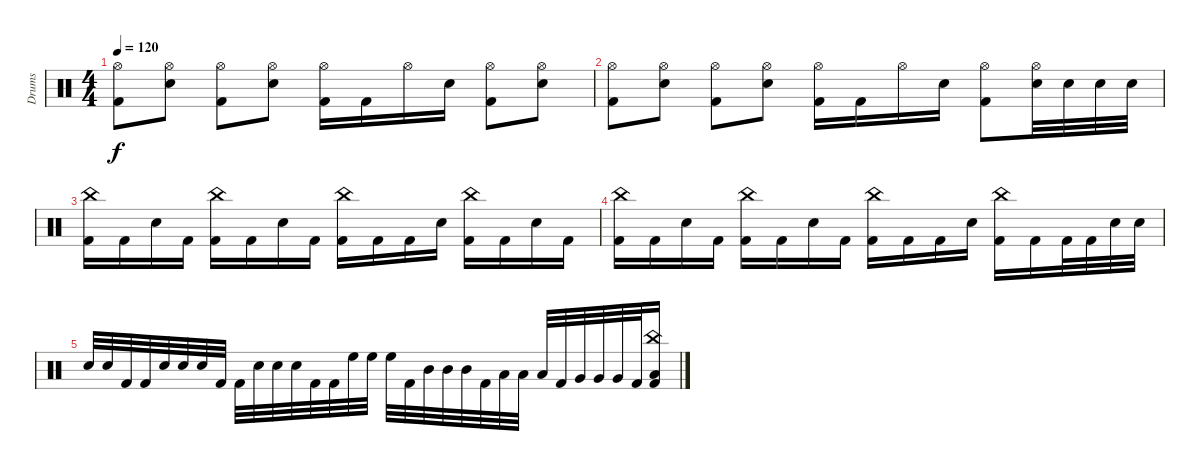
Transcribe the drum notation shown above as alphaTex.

\track ("Drums" "Drums") {instrument percussion}
\staff {score}
\articulation defaults
\ts (4 4)
\tempo 120
\clef neutral
\ks c
("Hi-Hat (open)" "Kick (hit) 2").8{dy f} ("Hi-Hat (open)" "Electric Snare (hit)").8 ("Hi-Hat (open)" "Kick (hit) 2").8 ("Hi-Hat (open)" "Electric Snare (hit)").8 ("Hi-Hat (open)" "Kick (hit) 2").16 "Kick (hit) 2".16 "Hi-Hat (open)".16 "Electric Snare (hit)".16 ("Hi-Hat (open)" "Kick (hit) 2").8 ("Hi-Hat (open)" "Electric Snare (hit)").8 |
("Hi-Hat (open)" "Kick (hit) 2").8 ("Hi-Hat (open)" "Electric Snare (hit)").8 ("Hi-Hat (open)" "Kick (hit) 2").8 ("Hi-Hat (open)" "Electric Snare (hit)").8 ("Hi-Hat (open)" "Kick (hit) 2").16 "Kick (hit) 2".16 "Hi-Hat (open)".16 "Electric Snare (hit)".16 ("Hi-Hat (open)" "Kick (hit) 2").8 ("Hi-Hat (open)" "Electric Snare (hit)").32 "Electric Snare (hit)".32 "Electric Snare (hit)".32 "Electric Snare (hit)".32 |
("China (hit)" "Kick (hit) 2").16 "Kick (hit) 2".16 "Electric Snare (hit)".16 "Kick (hit) 2".16 ("China (hit)" "Kick (hit) 2").16 "Kick (hit) 2".16 "Electric Snare (hit)".16 "Kick (hit) 2".16 ("China (hit)" "Kick (hit) 2").16 "Kick (hit) 2".16 "Kick (hit) 2".16 "Electric Snare (hit)".16 ("China (hit)" "Kick (hit) 2").16 "Kick (hit) 2".16 "Electric Snare (hit)".16 "Kick (hit) 2".16 |
("China (hit)" "Kick (hit) 2").16 "Kick (hit) 2".16 "Electric Snare (hit)".16 "Kick (hit) 2".16 ("China (hit)" "Kick (hit) 2").16 "Kick (hit) 2".16 "Electric Snare (hit)".16 "Kick (hit) 2".16 ("China (hit)" "Kick (hit) 2").16 "Kick (hit) 2".16 "Kick (hit) 2".16 "Electric Snare (hit)".16 ("China (hit)" "Kick (hit) 2").16 "Kick (hit) 2".16 "Kick (hit) 2".32 "Kick (hit) 2".32 "Electric Snare (hit)".32 "Electric Snare (hit)".32 |
"Electric Snare (hit)".32 "Electric Snare (hit)".32 "Kick (hit) 2".32 "Kick (hit) 2".32 "Electric Snare (hit)".32 "Electric Snare (hit)".32 "Electric Snare (hit)".32 "Kick (hit) 2".32 "Kick (hit) 2".32 "Electric Snare (hit)".32 "Electric Snare (hit)".32 "Electric Snare (hit)".32 "Kick (hit) 2".32 "Kick (hit) 2".32 "High Floor Tom (hit)".32 "High Floor Tom (hit)".32 "High Floor Tom (hit)".32 "Kick (hit) 2".32 "Mid Tom (hit)".32 "Mid Tom (hit)".32 "Mid Tom (hit)".32 "Kick (hit) 2".32 "Low Tom (hit)".32 "Low Tom (hit)".32 "Low Tom (hit)".32 "Kick (hit) 2".32 "Very Low Tom (hit)".32 "Very Low Tom (hit)".32 "Very Low Tom (hit)".32 "Kick (hit) 2".32 ("China (hit)" "Low Floor Tom (hit)" "Kick (hit) 2").16
